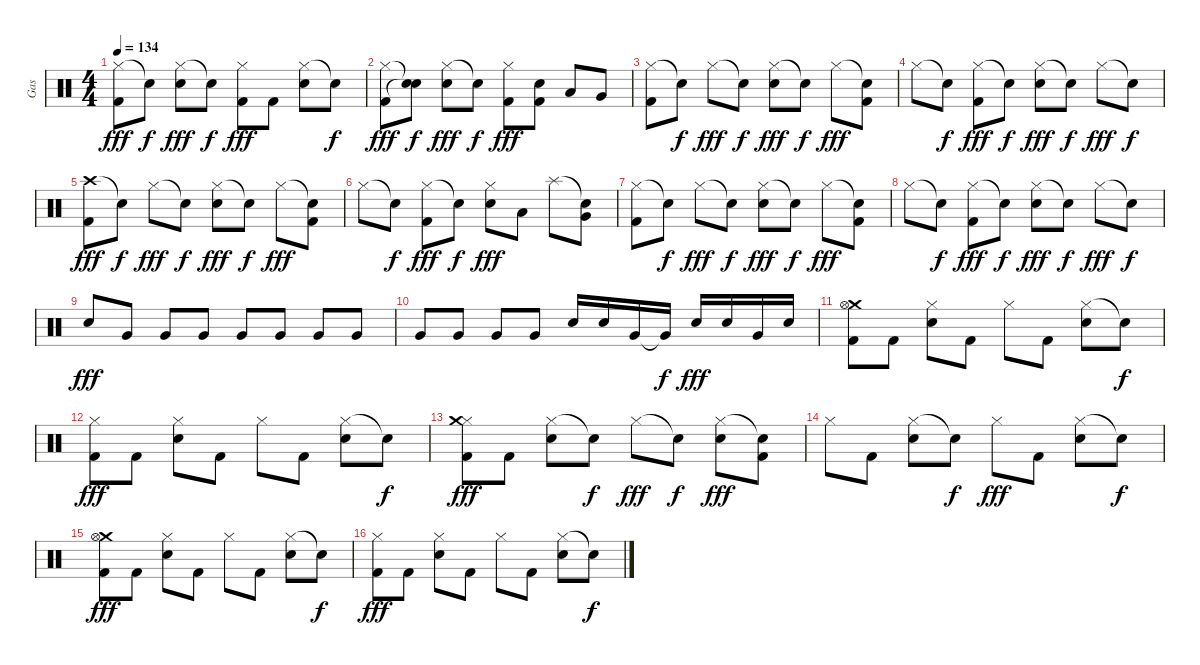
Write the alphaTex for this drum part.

\track ("Gas" "Gas") {instrument percussion}
\staff {score}
\articulation defaults
\ts (4 4)
\tempo 134
\clef neutral
\ks c
("Hi-Hat (closed)" "Kick (hit) 2").8{dy fff} "Snare (hit)"{t}.8{dy f} ("Hi-Hat (closed)" "Snare (hit) 2").8{dy fff} "Snare (hit)"{t}.8{dy f} ("Hi-Hat (closed)" "Kick (hit) 2").8{dy fff} "Kick (hit) 2".8 ("Hi-Hat (closed)" "Snare (hit) 2").8 "Snare (hit)"{t}.8{dy f} |
("Hi-Hat (closed)" "Kick (hit) 2").8{dy fff} ("Snare (hit)"{t} "Snare (hit)"{t}).8{dy f} ("Hi-Hat (closed)" "Snare (hit) 2").8{dy fff} "Snare (hit)"{t}.8{dy f} ("Hi-Hat (closed)" "Kick (hit) 2").8{dy fff} ("Snare (hit) 2" "Kick (hit) 2").8 "Low Tom (hit)".8 "Very Low Tom (hit)".8 |
("Hi-Hat (closed)" "Kick (hit) 2").8 "Snare (hit)"{t}.8{dy f} "Hi-Hat (closed)".8{dy fff} "Snare (hit)"{t}.8{dy f} ("Hi-Hat (closed)" "Snare (hit) 2").8{dy fff} "Snare (hit)"{t}.8{dy f} "Hi-Hat (closed)".8{dy fff} ("Snare (hit)"{t} "Kick (hit) 2").8 |
"Hi-Hat (closed)".8 "Snare (hit)"{t}.8{dy f} ("Hi-Hat (closed)" "Kick (hit) 2").8{dy fff} "Snare (hit)"{t}.8{dy f} ("Hi-Hat (closed)" "Snare (hit) 2").8{dy fff} "Snare (hit)"{t}.8{dy f} "Hi-Hat (closed)".8{dy fff} "Snare (hit)"{t}.8{dy f} |
("Crash high (hit)" "Kick (hit) 2").8{dy fff} "Snare (hit)"{t}.8{dy f} "Hi-Hat (closed)".8{dy fff} "Snare (hit)"{t}.8{dy f} ("Hi-Hat (closed)" "Snare (hit) 2").8{dy fff} "Snare (hit)"{t}.8{dy f} "Hi-Hat (closed)".8{dy fff} ("Snare (hit)"{t} "Kick (hit) 2").8 |
"Hi-Hat (closed)".8 "Snare (hit)"{t}.8{dy f} ("Hi-Hat (closed)" "Kick (hit) 2").8{dy fff} "Snare (hit)"{t}.8{dy f} ("Hi-Hat (closed)" "Snare (hit) 2").8{dy fff} "Low Tom (hit)".8 "Splash (hit)".8 ("Snare (hit)"{t} "Very Low Tom (hit)").8 |
("Hi-Hat (closed)" "Kick (hit) 2").8 "Snare (hit)"{t}.8{dy f} "Hi-Hat (closed)".8{dy fff} "Snare (hit)"{t}.8{dy f} ("Hi-Hat (closed)" "Snare (hit) 2").8{dy fff} "Snare (hit)"{t}.8{dy f} "Hi-Hat (closed)".8{dy fff} ("Snare (hit)"{t} "Kick (hit) 2").8 |
"Hi-Hat (closed)".8 "Snare (hit)"{t}.8{dy f} ("Hi-Hat (closed)" "Kick (hit) 2").8{dy fff} "Snare (hit)"{t}.8{dy f} ("Hi-Hat (closed)" "Snare (hit) 2").8{dy fff} "Snare (hit)"{t}.8{dy f} "Hi-Hat (closed)".8{dy fff} "Snare (hit)"{t}.8{dy f} |
"Snare (hit) 2".8{dy fff} "Very Low Tom (hit)".8 "Very Low Tom (hit)".8 "Very Low Tom (hit)".8 "Very Low Tom (hit)".8 "Very Low Tom (hit)".8 "Very Low Tom (hit)".8 "Very Low Tom (hit)".8 |
"Very Low Tom (hit)".8 "Very Low Tom (hit)".8 "Very Low Tom (hit)".8 "Very Low Tom (hit)".8 "Snare (hit) 2".16 "Snare (hit) 2".16 "Very Low Tom (hit)".16 "Very Low Tom (hit)"{t}.16{dy f} "Snare (hit) 2".16{dy fff} "Snare (hit) 2".16 "Very Low Tom (hit)".16 "Snare (hit) 2".16 |
("Crash medium (hit)" "Hi-Hat (open)" "Kick (hit) 2").8 "Kick (hit) 2".8 ("Hi-Hat (closed)" "Snare (hit) 2").8 "Kick (hit) 2".8 "Hi-Hat (closed)".8 "Kick (hit) 2".8 ("Hi-Hat (closed)" "Snare (hit) 2").8 "Snare (hit)"{t}.8{dy f} |
("Hi-Hat (closed)" "Kick (hit) 2").8{dy fff} "Kick (hit) 2".8 ("Hi-Hat (closed)" "Snare (hit) 2").8 "Kick (hit) 2".8 "Hi-Hat (closed)".8 "Kick (hit) 2".8 ("Hi-Hat (closed)" "Snare (hit) 2").8 "Snare (hit)"{t}.8{dy f} |
("Hi-Hat (closed)" "Crash medium (hit)" "Kick (hit) 2").8{dy fff} "Kick (hit) 2".8 ("Hi-Hat (closed)" "Snare (hit) 2").8 "Snare (hit)"{t}.8{dy f} "Hi-Hat (closed)".8{dy fff} "Snare (hit)"{t}.8{dy f} ("Hi-Hat (closed)" "Snare (hit) 2").8{dy fff} ("Snare (hit)"{t} "Kick (hit) 2").8 |
"Hi-Hat (closed)".8 "Kick (hit) 2".8 ("Hi-Hat (closed)" "Snare (hit) 2").8 "Snare (hit)"{t}.8{dy f} "Hi-Hat (closed)".8{dy fff} "Kick (hit) 2".8 ("Hi-Hat (closed)" "Snare (hit) 2").8 "Snare (hit)"{t}.8{dy f} |
("Crash medium (hit)" "Hi-Hat (open)" "Kick (hit) 2").8{dy fff} "Kick (hit) 2".8 ("Hi-Hat (closed)" "Snare (hit) 2").8 "Kick (hit) 2".8 "Hi-Hat (closed)".8 "Kick (hit) 2".8 ("Hi-Hat (closed)" "Snare (hit) 2").8 "Snare (hit)"{t}.8{dy f} |
("Hi-Hat (closed)" "Kick (hit) 2").8{dy fff} "Kick (hit) 2".8 ("Hi-Hat (closed)" "Snare (hit) 2").8 "Kick (hit) 2".8 "Hi-Hat (closed)".8 "Kick (hit) 2".8 ("Hi-Hat (closed)" "Snare (hit) 2").8 "Snare (hit)"{t}.8{dy f}
